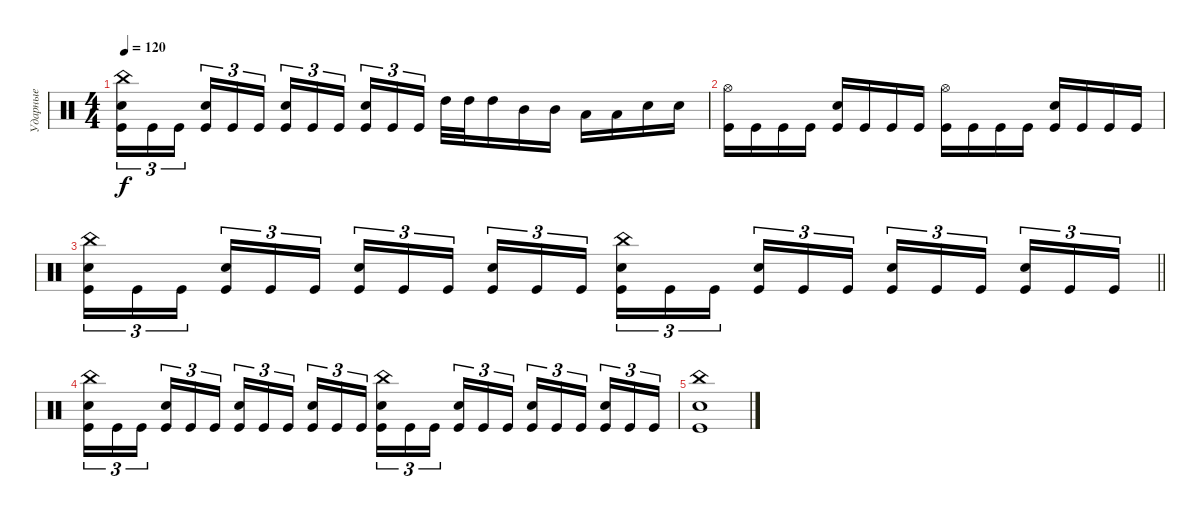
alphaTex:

\track ("Ударные" "Ударные") {instrument percussion}
\staff {score}
\articulation defaults
\ts (4 4)
\tempo 120
\clef neutral
\ks c
("China (hit)" "Electric Snare (hit)" "Kick (hit)").16{tu (3 2) dy f} "Kick (hit)".16{tu (3 2)} "Kick (hit)".16{tu (3 2) beam splitsecondary} ("Electric Snare (hit)" "Kick (hit)").16{tu (3 2)} "Kick (hit)".16{tu (3 2)} "Kick (hit)".16{tu (3 2)} ("Electric Snare (hit)" "Kick (hit)").16{tu (3 2)} "Kick (hit)".16{tu (3 2)} "Kick (hit)".16{tu (3 2) beam splitsecondary} ("Electric Snare (hit)" "Kick (hit)").16{tu (3 2)} "Kick (hit)".16{tu (3 2)} "Kick (hit)".16{tu (3 2)} "High Tom (hit)".32 "High Tom (hit)".32 "High Tom (hit)".16 "Mid Tom (hit)".16 "Mid Tom (hit)".16 "Low Tom (hit)".16 "Low Tom (hit)".16 "Electric Snare (hit)".16 "Electric Snare (hit)".16 |
("Hi-Hat (open)" "Kick (hit)").16 "Kick (hit)".16 "Kick (hit)".16 "Kick (hit)".16 ("Electric Snare (hit)" "Kick (hit)").16 "Kick (hit)".16 "Kick (hit)".16 "Kick (hit)".16 ("Hi-Hat (open)" "Kick (hit)").16 "Kick (hit)".16 "Kick (hit)".16 "Kick (hit)".16 ("Electric Snare (hit)" "Kick (hit)").16 "Kick (hit)".16 "Kick (hit)".16 "Kick (hit)".16 |
\barLineRight lightlight
("China (hit)" "Electric Snare (hit)" "Kick (hit)").16{tu (3 2)} "Kick (hit)".16{tu (3 2)} "Kick (hit)".16{tu (3 2) beam splitsecondary} ("Electric Snare (hit)" "Kick (hit)").16{tu (3 2)} "Kick (hit)".16{tu (3 2)} "Kick (hit)".16{tu (3 2)} ("Electric Snare (hit)" "Kick (hit)").16{tu (3 2)} "Kick (hit)".16{tu (3 2)} "Kick (hit)".16{tu (3 2) beam splitsecondary} ("Electric Snare (hit)" "Kick (hit)").16{tu (3 2)} "Kick (hit)".16{tu (3 2)} "Kick (hit)".16{tu (3 2)} ("China (hit)" "Electric Snare (hit)" "Kick (hit)").16{tu (3 2)} "Kick (hit)".16{tu (3 2)} "Kick (hit)".16{tu (3 2) beam splitsecondary} ("Electric Snare (hit)" "Kick (hit)").16{tu (3 2)} "Kick (hit)".16{tu (3 2)} "Kick (hit)".16{tu (3 2)} ("Electric Snare (hit)" "Kick (hit)").16{tu (3 2)} "Kick (hit)".16{tu (3 2)} "Kick (hit)".16{tu (3 2) beam splitsecondary} ("Electric Snare (hit)" "Kick (hit)").16{tu (3 2)} "Kick (hit)".16{tu (3 2)} "Kick (hit)".16{tu (3 2)} |
("China (hit)" "Electric Snare (hit)" "Kick (hit)").16{tu (3 2)} "Kick (hit)".16{tu (3 2)} "Kick (hit)".16{tu (3 2) beam splitsecondary} ("Electric Snare (hit)" "Kick (hit)").16{tu (3 2)} "Kick (hit)".16{tu (3 2)} "Kick (hit)".16{tu (3 2)} ("Electric Snare (hit)" "Kick (hit)").16{tu (3 2)} "Kick (hit)".16{tu (3 2)} "Kick (hit)".16{tu (3 2) beam splitsecondary} ("Electric Snare (hit)" "Kick (hit)").16{tu (3 2)} "Kick (hit)".16{tu (3 2)} "Kick (hit)".16{tu (3 2)} ("China (hit)" "Electric Snare (hit)" "Kick (hit)").16{tu (3 2)} "Kick (hit)".16{tu (3 2)} "Kick (hit)".16{tu (3 2) beam splitsecondary} ("Electric Snare (hit)" "Kick (hit)").16{tu (3 2)} "Kick (hit)".16{tu (3 2)} "Kick (hit)".16{tu (3 2)} ("Electric Snare (hit)" "Kick (hit)").16{tu (3 2)} "Kick (hit)".16{tu (3 2)} "Kick (hit)".16{tu (3 2) beam splitsecondary} ("Electric Snare (hit)" "Kick (hit)").16{tu (3 2)} "Kick (hit)".16{tu (3 2)} "Kick (hit)".16{tu (3 2)} |
("China (hit)" "Electric Snare (hit)" "Kick (hit)").1
